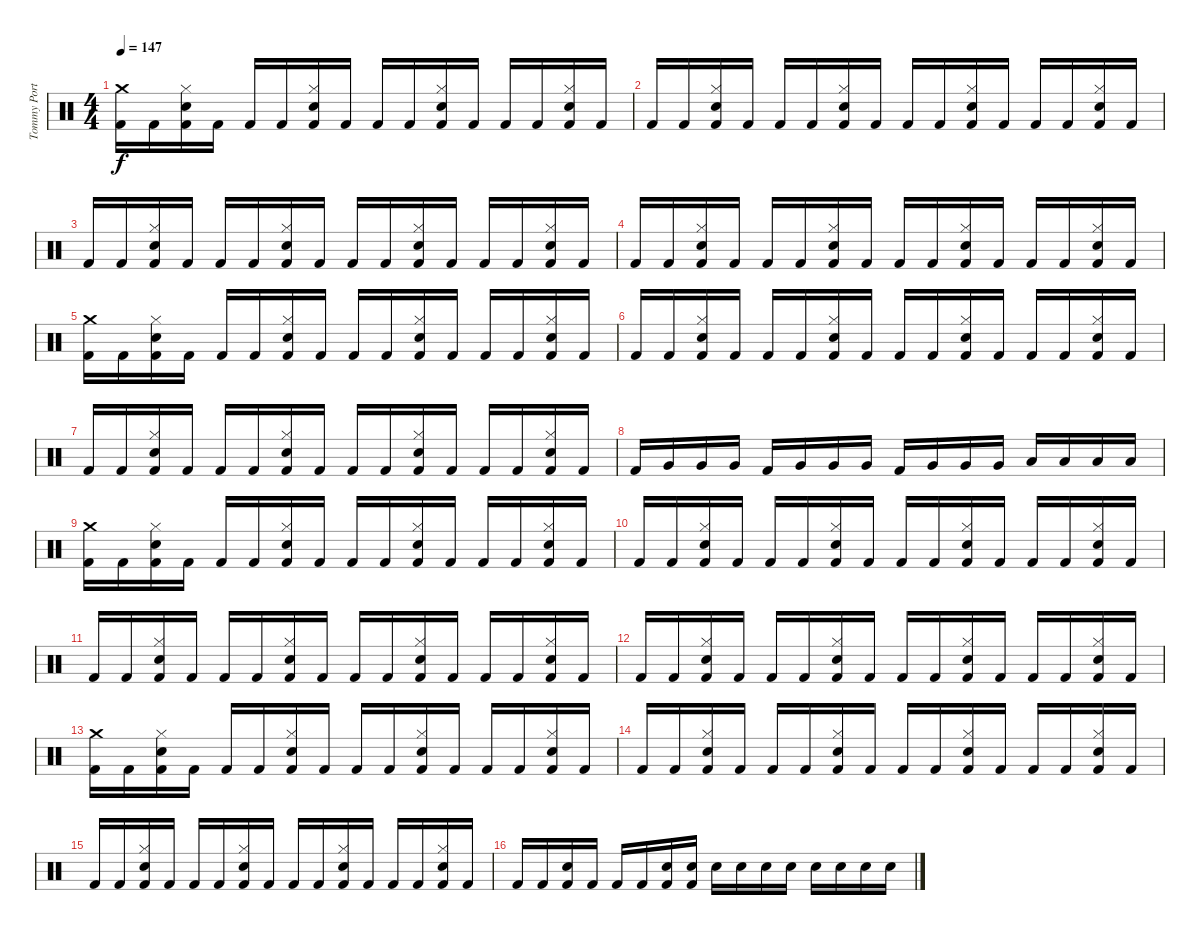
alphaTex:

\track ("Tommy Portino" "Tommy Port") {instrument percussion}
\staff {score}
\articulation defaults
\ts (4 4)
\tempo 147
\clef neutral
\ks c
("Crash medium (hit)" "Kick (hit) 2").16{dy f} "Kick (hit) 2".16 ("Hi-Hat (closed)" "Electric Snare (hit)" "Kick (hit) 2").16 "Kick (hit) 2".16 "Kick (hit) 2".16 "Kick (hit) 2".16 ("Hi-Hat (closed)" "Electric Snare (hit)" "Kick (hit) 2").16 "Kick (hit) 2".16 "Kick (hit) 2".16 "Kick (hit) 2".16 ("Hi-Hat (closed)" "Electric Snare (hit)" "Kick (hit) 2").16 "Kick (hit) 2".16 "Kick (hit) 2".16 "Kick (hit) 2".16 ("Hi-Hat (closed)" "Electric Snare (hit)" "Kick (hit) 2").16 "Kick (hit) 2".16 |
"Kick (hit) 2".16 "Kick (hit) 2".16 ("Hi-Hat (closed)" "Electric Snare (hit)" "Kick (hit) 2").16 "Kick (hit) 2".16 "Kick (hit) 2".16 "Kick (hit) 2".16 ("Hi-Hat (closed)" "Electric Snare (hit)" "Kick (hit) 2").16 "Kick (hit) 2".16 "Kick (hit) 2".16 "Kick (hit) 2".16 ("Hi-Hat (closed)" "Electric Snare (hit)" "Kick (hit) 2").16 "Kick (hit) 2".16 "Kick (hit) 2".16 "Kick (hit) 2".16 ("Hi-Hat (closed)" "Electric Snare (hit)" "Kick (hit) 2").16 "Kick (hit) 2".16 |
"Kick (hit) 2".16 "Kick (hit) 2".16 ("Hi-Hat (closed)" "Electric Snare (hit)" "Kick (hit) 2").16 "Kick (hit) 2".16 "Kick (hit) 2".16 "Kick (hit) 2".16 ("Hi-Hat (closed)" "Electric Snare (hit)" "Kick (hit) 2").16 "Kick (hit) 2".16 "Kick (hit) 2".16 "Kick (hit) 2".16 ("Hi-Hat (closed)" "Electric Snare (hit)" "Kick (hit) 2").16 "Kick (hit) 2".16 "Kick (hit) 2".16 "Kick (hit) 2".16 ("Hi-Hat (closed)" "Electric Snare (hit)" "Kick (hit) 2").16 "Kick (hit) 2".16 |
"Kick (hit) 2".16 "Kick (hit) 2".16 ("Hi-Hat (closed)" "Electric Snare (hit)" "Kick (hit) 2").16 "Kick (hit) 2".16 "Kick (hit) 2".16 "Kick (hit) 2".16 ("Hi-Hat (closed)" "Electric Snare (hit)" "Kick (hit) 2").16 "Kick (hit) 2".16 "Kick (hit) 2".16 "Kick (hit) 2".16 ("Hi-Hat (closed)" "Electric Snare (hit)" "Kick (hit) 2").16 "Kick (hit) 2".16 "Kick (hit) 2".16 "Kick (hit) 2".16 ("Hi-Hat (closed)" "Electric Snare (hit)" "Kick (hit) 2").16 "Kick (hit) 2".16 |
("Crash medium (hit)" "Kick (hit) 2").16 "Kick (hit) 2".16 ("Hi-Hat (closed)" "Electric Snare (hit)" "Kick (hit) 2").16 "Kick (hit) 2".16 "Kick (hit) 2".16 "Kick (hit) 2".16 ("Hi-Hat (closed)" "Electric Snare (hit)" "Kick (hit) 2").16 "Kick (hit) 2".16 "Kick (hit) 2".16 "Kick (hit) 2".16 ("Hi-Hat (closed)" "Electric Snare (hit)" "Kick (hit) 2").16 "Kick (hit) 2".16 "Kick (hit) 2".16 "Kick (hit) 2".16 ("Hi-Hat (closed)" "Electric Snare (hit)" "Kick (hit) 2").16 "Kick (hit) 2".16 |
"Kick (hit) 2".16 "Kick (hit) 2".16 ("Hi-Hat (closed)" "Electric Snare (hit)" "Kick (hit) 2").16 "Kick (hit) 2".16 "Kick (hit) 2".16 "Kick (hit) 2".16 ("Hi-Hat (closed)" "Electric Snare (hit)" "Kick (hit) 2").16 "Kick (hit) 2".16 "Kick (hit) 2".16 "Kick (hit) 2".16 ("Hi-Hat (closed)" "Electric Snare (hit)" "Kick (hit) 2").16 "Kick (hit) 2".16 "Kick (hit) 2".16 "Kick (hit) 2".16 ("Hi-Hat (closed)" "Electric Snare (hit)" "Kick (hit) 2").16 "Kick (hit) 2".16 |
"Kick (hit) 2".16 "Kick (hit) 2".16 ("Hi-Hat (closed)" "Electric Snare (hit)" "Kick (hit) 2").16 "Kick (hit) 2".16 "Kick (hit) 2".16 "Kick (hit) 2".16 ("Hi-Hat (closed)" "Electric Snare (hit)" "Kick (hit) 2").16 "Kick (hit) 2".16 "Kick (hit) 2".16 "Kick (hit) 2".16 ("Hi-Hat (closed)" "Electric Snare (hit)" "Kick (hit) 2").16 "Kick (hit) 2".16 "Kick (hit) 2".16 "Kick (hit) 2".16 ("Hi-Hat (closed)" "Electric Snare (hit)" "Kick (hit) 2").16 "Kick (hit) 2".16 |
"Kick (hit) 2".16 "Very Low Tom (hit)".16 "Very Low Tom (hit)".16 "Very Low Tom (hit)".16 "Kick (hit) 2".16 "Very Low Tom (hit)".16 "Very Low Tom (hit)".16 "Very Low Tom (hit)".16 "Kick (hit) 2".16 "Very Low Tom (hit)".16 "Very Low Tom (hit)".16 "Very Low Tom (hit)".16 "Low Floor Tom (hit)".16 "Low Floor Tom (hit)".16 "Low Floor Tom (hit)".16 "Low Floor Tom (hit)".16 |
("Crash medium (hit)" "Kick (hit) 2").16 "Kick (hit) 2".16 ("Hi-Hat (closed)" "Electric Snare (hit)" "Kick (hit) 2").16 "Kick (hit) 2".16 "Kick (hit) 2".16 "Kick (hit) 2".16 ("Hi-Hat (closed)" "Electric Snare (hit)" "Kick (hit) 2").16 "Kick (hit) 2".16 "Kick (hit) 2".16 "Kick (hit) 2".16 ("Hi-Hat (closed)" "Electric Snare (hit)" "Kick (hit) 2").16 "Kick (hit) 2".16 "Kick (hit) 2".16 "Kick (hit) 2".16 ("Hi-Hat (closed)" "Electric Snare (hit)" "Kick (hit) 2").16 "Kick (hit) 2".16 |
"Kick (hit) 2".16 "Kick (hit) 2".16 ("Hi-Hat (closed)" "Electric Snare (hit)" "Kick (hit) 2").16 "Kick (hit) 2".16 "Kick (hit) 2".16 "Kick (hit) 2".16 ("Hi-Hat (closed)" "Electric Snare (hit)" "Kick (hit) 2").16 "Kick (hit) 2".16 "Kick (hit) 2".16 "Kick (hit) 2".16 ("Hi-Hat (closed)" "Electric Snare (hit)" "Kick (hit) 2").16 "Kick (hit) 2".16 "Kick (hit) 2".16 "Kick (hit) 2".16 ("Hi-Hat (closed)" "Electric Snare (hit)" "Kick (hit) 2").16 "Kick (hit) 2".16 |
"Kick (hit) 2".16 "Kick (hit) 2".16 ("Hi-Hat (closed)" "Electric Snare (hit)" "Kick (hit) 2").16 "Kick (hit) 2".16 "Kick (hit) 2".16 "Kick (hit) 2".16 ("Hi-Hat (closed)" "Electric Snare (hit)" "Kick (hit) 2").16 "Kick (hit) 2".16 "Kick (hit) 2".16 "Kick (hit) 2".16 ("Hi-Hat (closed)" "Electric Snare (hit)" "Kick (hit) 2").16 "Kick (hit) 2".16 "Kick (hit) 2".16 "Kick (hit) 2".16 ("Hi-Hat (closed)" "Electric Snare (hit)" "Kick (hit) 2").16 "Kick (hit) 2".16 |
"Kick (hit) 2".16 "Kick (hit) 2".16 ("Hi-Hat (closed)" "Electric Snare (hit)" "Kick (hit) 2").16 "Kick (hit) 2".16 "Kick (hit) 2".16 "Kick (hit) 2".16 ("Hi-Hat (closed)" "Electric Snare (hit)" "Kick (hit) 2").16 "Kick (hit) 2".16 "Kick (hit) 2".16 "Kick (hit) 2".16 ("Hi-Hat (closed)" "Electric Snare (hit)" "Kick (hit) 2").16 "Kick (hit) 2".16 "Kick (hit) 2".16 "Kick (hit) 2".16 ("Hi-Hat (closed)" "Electric Snare (hit)" "Kick (hit) 2").16 "Kick (hit) 2".16 |
("Crash medium (hit)" "Kick (hit) 2").16 "Kick (hit) 2".16 ("Hi-Hat (closed)" "Electric Snare (hit)" "Kick (hit) 2").16 "Kick (hit) 2".16 "Kick (hit) 2".16 "Kick (hit) 2".16 ("Hi-Hat (closed)" "Electric Snare (hit)" "Kick (hit) 2").16 "Kick (hit) 2".16 "Kick (hit) 2".16 "Kick (hit) 2".16 ("Hi-Hat (closed)" "Electric Snare (hit)" "Kick (hit) 2").16 "Kick (hit) 2".16 "Kick (hit) 2".16 "Kick (hit) 2".16 ("Hi-Hat (closed)" "Electric Snare (hit)" "Kick (hit) 2").16 "Kick (hit) 2".16 |
"Kick (hit) 2".16 "Kick (hit) 2".16 ("Hi-Hat (closed)" "Electric Snare (hit)" "Kick (hit) 2").16 "Kick (hit) 2".16 "Kick (hit) 2".16 "Kick (hit) 2".16 ("Hi-Hat (closed)" "Electric Snare (hit)" "Kick (hit) 2").16 "Kick (hit) 2".16 "Kick (hit) 2".16 "Kick (hit) 2".16 ("Hi-Hat (closed)" "Electric Snare (hit)" "Kick (hit) 2").16 "Kick (hit) 2".16 "Kick (hit) 2".16 "Kick (hit) 2".16 ("Hi-Hat (closed)" "Electric Snare (hit)" "Kick (hit) 2").16 "Kick (hit) 2".16 |
"Kick (hit) 2".16 "Kick (hit) 2".16 ("Hi-Hat (closed)" "Electric Snare (hit)" "Kick (hit) 2").16 "Kick (hit) 2".16 "Kick (hit) 2".16 "Kick (hit) 2".16 ("Hi-Hat (closed)" "Electric Snare (hit)" "Kick (hit) 2").16 "Kick (hit) 2".16 "Kick (hit) 2".16 "Kick (hit) 2".16 ("Hi-Hat (closed)" "Electric Snare (hit)" "Kick (hit) 2").16 "Kick (hit) 2".16 "Kick (hit) 2".16 "Kick (hit) 2".16 ("Hi-Hat (closed)" "Electric Snare (hit)" "Kick (hit) 2").16 "Kick (hit) 2".16 |
"Kick (hit) 2".16 "Kick (hit) 2".16 ("Electric Snare (hit)" "Kick (hit) 2").16 "Kick (hit) 2".16 "Kick (hit) 2".16 "Kick (hit) 2".16 ("Electric Snare (hit)" "Kick (hit) 2").16 ("Electric Snare (hit)" "Kick (hit) 2").16 "Electric Snare (hit)".16 "Electric Snare (hit)".16 "Electric Snare (hit)".16 "Electric Snare (hit)".16 "Electric Snare (hit)".16 "Electric Snare (hit)".16 "Electric Snare (hit)".16 "Electric Snare (hit)".16
